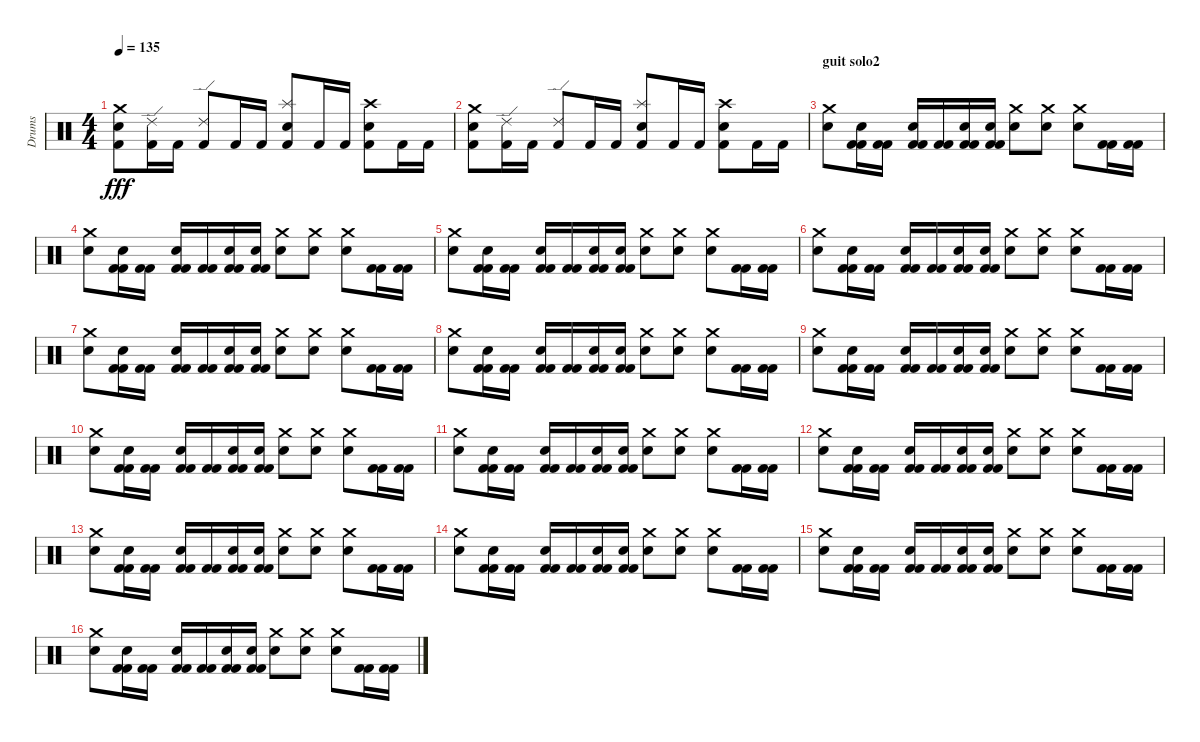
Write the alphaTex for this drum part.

\track ("Drums" "Drums") {instrument percussion}
\staff {score}
\articulation defaults
\ts (4 4)
\tempo 135
\clef neutral
\ks c
("Crash medium (hit)" "Electric Snare (hit)" "Kick (hit) 2").8{dy fff} ("Ride (edge) 2" "Kick (hit) 2").16 "Kick (hit) 2".16 ("Ride (edge) 2" "Kick (hit) 2").8 "Kick (hit) 2".16 "Kick (hit) 2".16 ("Splash (hit)" "Snare (hit) 2" "Kick (hit) 2").8 "Kick (hit) 2".16 "Kick (hit) 2".16 ("Crash high (hit)" "Snare (hit) 2" "Kick (hit) 2").8 "Kick (hit) 2".16 "Kick (hit) 2".16 |
("Crash medium (hit)" "Electric Snare (hit)" "Kick (hit) 2").8 ("Ride (edge) 2" "Kick (hit) 2").16 "Kick (hit) 2".16 ("Ride (edge) 2" "Kick (hit) 2").8 "Kick (hit) 2".16 "Kick (hit) 2".16 ("Splash (hit)" "Snare (hit) 2" "Kick (hit) 2").8 "Kick (hit) 2".16 "Kick (hit) 2".16 ("Crash high (hit)" "Snare (hit) 2" "Kick (hit) 2").8 "Kick (hit) 2".16 "Kick (hit) 2".16 |
\section ("" "guit solo2")
("Crash medium (hit)" "Electric Snare (hit)").8 ("Electric Snare (hit)" "Kick (hit) 2" "Kick (hit) 2").16 ("Kick (hit) 2" "Kick (hit) 2").16 ("Electric Snare (hit)" "Kick (hit) 2" "Kick (hit) 2").16 ("Kick (hit) 2" "Kick (hit) 2").16 ("Electric Snare (hit)" "Kick (hit) 2" "Kick (hit) 2").16 ("Electric Snare (hit)" "Kick (hit) 2" "Kick (hit) 2").16 ("Electric Snare (hit)" "Crash medium (hit)").8 ("Electric Snare (hit)" "Crash medium (hit)").8 ("Electric Snare (hit)" "Crash medium (hit)").8 ("Kick (hit) 2" "Kick (hit) 2").16 ("Kick (hit) 2" "Kick (hit) 2").16 |
("Crash medium (hit)" "Electric Snare (hit)").8 ("Electric Snare (hit)" "Kick (hit) 2" "Kick (hit) 2").16 ("Kick (hit) 2" "Kick (hit) 2").16 ("Electric Snare (hit)" "Kick (hit) 2" "Kick (hit) 2").16 ("Kick (hit) 2" "Kick (hit) 2").16 ("Electric Snare (hit)" "Kick (hit) 2" "Kick (hit) 2").16 ("Electric Snare (hit)" "Kick (hit) 2" "Kick (hit) 2").16 ("Electric Snare (hit)" "Crash medium (hit)").8 ("Electric Snare (hit)" "Crash medium (hit)").8 ("Electric Snare (hit)" "Crash medium (hit)").8 ("Kick (hit) 2" "Kick (hit) 2").16 ("Kick (hit) 2" "Kick (hit) 2").16 |
("Crash medium (hit)" "Electric Snare (hit)").8 ("Electric Snare (hit)" "Kick (hit) 2" "Kick (hit) 2").16 ("Kick (hit) 2" "Kick (hit) 2").16 ("Electric Snare (hit)" "Kick (hit) 2" "Kick (hit) 2").16 ("Kick (hit) 2" "Kick (hit) 2").16 ("Electric Snare (hit)" "Kick (hit) 2" "Kick (hit) 2").16 ("Electric Snare (hit)" "Kick (hit) 2" "Kick (hit) 2").16 ("Electric Snare (hit)" "Crash medium (hit)").8 ("Electric Snare (hit)" "Crash medium (hit)").8 ("Electric Snare (hit)" "Crash medium (hit)").8 ("Kick (hit) 2" "Kick (hit) 2").16 ("Kick (hit) 2" "Kick (hit) 2").16 |
("Crash medium (hit)" "Electric Snare (hit)").8 ("Electric Snare (hit)" "Kick (hit) 2" "Kick (hit) 2").16 ("Kick (hit) 2" "Kick (hit) 2").16 ("Electric Snare (hit)" "Kick (hit) 2" "Kick (hit) 2").16 ("Kick (hit) 2" "Kick (hit) 2").16 ("Electric Snare (hit)" "Kick (hit) 2" "Kick (hit) 2").16 ("Electric Snare (hit)" "Kick (hit) 2" "Kick (hit) 2").16 ("Electric Snare (hit)" "Crash medium (hit)").8 ("Electric Snare (hit)" "Crash medium (hit)").8 ("Electric Snare (hit)" "Crash medium (hit)").8 ("Kick (hit) 2" "Kick (hit) 2").16 ("Kick (hit) 2" "Kick (hit) 2").16 |
("Crash medium (hit)" "Electric Snare (hit)").8 ("Electric Snare (hit)" "Kick (hit) 2" "Kick (hit) 2").16 ("Kick (hit) 2" "Kick (hit) 2").16 ("Electric Snare (hit)" "Kick (hit) 2" "Kick (hit) 2").16 ("Kick (hit) 2" "Kick (hit) 2").16 ("Electric Snare (hit)" "Kick (hit) 2" "Kick (hit) 2").16 ("Electric Snare (hit)" "Kick (hit) 2" "Kick (hit) 2").16 ("Electric Snare (hit)" "Crash medium (hit)").8 ("Electric Snare (hit)" "Crash medium (hit)").8 ("Electric Snare (hit)" "Crash medium (hit)").8 ("Kick (hit) 2" "Kick (hit) 2").16 ("Kick (hit) 2" "Kick (hit) 2").16 |
("Crash medium (hit)" "Electric Snare (hit)").8 ("Electric Snare (hit)" "Kick (hit) 2" "Kick (hit) 2").16 ("Kick (hit) 2" "Kick (hit) 2").16 ("Electric Snare (hit)" "Kick (hit) 2" "Kick (hit) 2").16 ("Kick (hit) 2" "Kick (hit) 2").16 ("Electric Snare (hit)" "Kick (hit) 2" "Kick (hit) 2").16 ("Electric Snare (hit)" "Kick (hit) 2" "Kick (hit) 2").16 ("Electric Snare (hit)" "Crash medium (hit)").8 ("Electric Snare (hit)" "Crash medium (hit)").8 ("Electric Snare (hit)" "Crash medium (hit)").8 ("Kick (hit) 2" "Kick (hit) 2").16 ("Kick (hit) 2" "Kick (hit) 2").16 |
("Crash medium (hit)" "Electric Snare (hit)").8 ("Electric Snare (hit)" "Kick (hit) 2" "Kick (hit) 2").16 ("Kick (hit) 2" "Kick (hit) 2").16 ("Electric Snare (hit)" "Kick (hit) 2" "Kick (hit) 2").16 ("Kick (hit) 2" "Kick (hit) 2").16 ("Electric Snare (hit)" "Kick (hit) 2" "Kick (hit) 2").16 ("Electric Snare (hit)" "Kick (hit) 2" "Kick (hit) 2").16 ("Electric Snare (hit)" "Crash medium (hit)").8 ("Electric Snare (hit)" "Crash medium (hit)").8 ("Electric Snare (hit)" "Crash medium (hit)").8 ("Kick (hit) 2" "Kick (hit) 2").16 ("Kick (hit) 2" "Kick (hit) 2").16 |
("Crash medium (hit)" "Electric Snare (hit)").8 ("Electric Snare (hit)" "Kick (hit) 2" "Kick (hit) 2").16 ("Kick (hit) 2" "Kick (hit) 2").16 ("Electric Snare (hit)" "Kick (hit) 2" "Kick (hit) 2").16 ("Kick (hit) 2" "Kick (hit) 2").16 ("Electric Snare (hit)" "Kick (hit) 2" "Kick (hit) 2").16 ("Electric Snare (hit)" "Kick (hit) 2" "Kick (hit) 2").16 ("Electric Snare (hit)" "Crash medium (hit)").8 ("Electric Snare (hit)" "Crash medium (hit)").8 ("Electric Snare (hit)" "Crash medium (hit)").8 ("Kick (hit) 2" "Kick (hit) 2").16 ("Kick (hit) 2" "Kick (hit) 2").16 |
("Crash medium (hit)" "Electric Snare (hit)").8 ("Electric Snare (hit)" "Kick (hit) 2" "Kick (hit) 2").16 ("Kick (hit) 2" "Kick (hit) 2").16 ("Electric Snare (hit)" "Kick (hit) 2" "Kick (hit) 2").16 ("Kick (hit) 2" "Kick (hit) 2").16 ("Electric Snare (hit)" "Kick (hit) 2" "Kick (hit) 2").16 ("Electric Snare (hit)" "Kick (hit) 2" "Kick (hit) 2").16 ("Electric Snare (hit)" "Crash medium (hit)").8 ("Electric Snare (hit)" "Crash medium (hit)").8 ("Electric Snare (hit)" "Crash medium (hit)").8 ("Kick (hit) 2" "Kick (hit) 2").16 ("Kick (hit) 2" "Kick (hit) 2").16 |
("Crash medium (hit)" "Electric Snare (hit)").8 ("Electric Snare (hit)" "Kick (hit) 2" "Kick (hit) 2").16 ("Kick (hit) 2" "Kick (hit) 2").16 ("Electric Snare (hit)" "Kick (hit) 2" "Kick (hit) 2").16 ("Kick (hit) 2" "Kick (hit) 2").16 ("Electric Snare (hit)" "Kick (hit) 2" "Kick (hit) 2").16 ("Electric Snare (hit)" "Kick (hit) 2" "Kick (hit) 2").16 ("Electric Snare (hit)" "Crash medium (hit)").8 ("Electric Snare (hit)" "Crash medium (hit)").8 ("Electric Snare (hit)" "Crash medium (hit)").8 ("Kick (hit) 2" "Kick (hit) 2").16 ("Kick (hit) 2" "Kick (hit) 2").16 |
("Crash medium (hit)" "Electric Snare (hit)").8 ("Electric Snare (hit)" "Kick (hit) 2" "Kick (hit) 2").16 ("Kick (hit) 2" "Kick (hit) 2").16 ("Electric Snare (hit)" "Kick (hit) 2" "Kick (hit) 2").16 ("Kick (hit) 2" "Kick (hit) 2").16 ("Electric Snare (hit)" "Kick (hit) 2" "Kick (hit) 2").16 ("Electric Snare (hit)" "Kick (hit) 2" "Kick (hit) 2").16 ("Electric Snare (hit)" "Crash medium (hit)").8 ("Electric Snare (hit)" "Crash medium (hit)").8 ("Electric Snare (hit)" "Crash medium (hit)").8 ("Kick (hit) 2" "Kick (hit) 2").16 ("Kick (hit) 2" "Kick (hit) 2").16 |
("Crash medium (hit)" "Electric Snare (hit)").8 ("Electric Snare (hit)" "Kick (hit) 2" "Kick (hit) 2").16 ("Kick (hit) 2" "Kick (hit) 2").16 ("Electric Snare (hit)" "Kick (hit) 2" "Kick (hit) 2").16 ("Kick (hit) 2" "Kick (hit) 2").16 ("Electric Snare (hit)" "Kick (hit) 2" "Kick (hit) 2").16 ("Electric Snare (hit)" "Kick (hit) 2" "Kick (hit) 2").16 ("Electric Snare (hit)" "Crash medium (hit)").8 ("Electric Snare (hit)" "Crash medium (hit)").8 ("Electric Snare (hit)" "Crash medium (hit)").8 ("Kick (hit) 2" "Kick (hit) 2").16 ("Kick (hit) 2" "Kick (hit) 2").16 |
("Crash medium (hit)" "Electric Snare (hit)").8 ("Electric Snare (hit)" "Kick (hit) 2" "Kick (hit) 2").16 ("Kick (hit) 2" "Kick (hit) 2").16 ("Electric Snare (hit)" "Kick (hit) 2" "Kick (hit) 2").16 ("Kick (hit) 2" "Kick (hit) 2").16 ("Electric Snare (hit)" "Kick (hit) 2" "Kick (hit) 2").16 ("Electric Snare (hit)" "Kick (hit) 2" "Kick (hit) 2").16 ("Electric Snare (hit)" "Crash medium (hit)").8 ("Electric Snare (hit)" "Crash medium (hit)").8 ("Electric Snare (hit)" "Crash medium (hit)").8 ("Kick (hit) 2" "Kick (hit) 2").16 ("Kick (hit) 2" "Kick (hit) 2").16 |
("Crash medium (hit)" "Electric Snare (hit)").8 ("Electric Snare (hit)" "Kick (hit) 2" "Kick (hit) 2").16 ("Kick (hit) 2" "Kick (hit) 2").16 ("Electric Snare (hit)" "Kick (hit) 2" "Kick (hit) 2").16 ("Kick (hit) 2" "Kick (hit) 2").16 ("Electric Snare (hit)" "Kick (hit) 2" "Kick (hit) 2").16 ("Electric Snare (hit)" "Kick (hit) 2" "Kick (hit) 2").16 ("Electric Snare (hit)" "Crash medium (hit)").8 ("Electric Snare (hit)" "Crash medium (hit)").8 ("Electric Snare (hit)" "Crash medium (hit)").8 ("Kick (hit) 2" "Kick (hit) 2").16 ("Kick (hit) 2" "Kick (hit) 2").16
